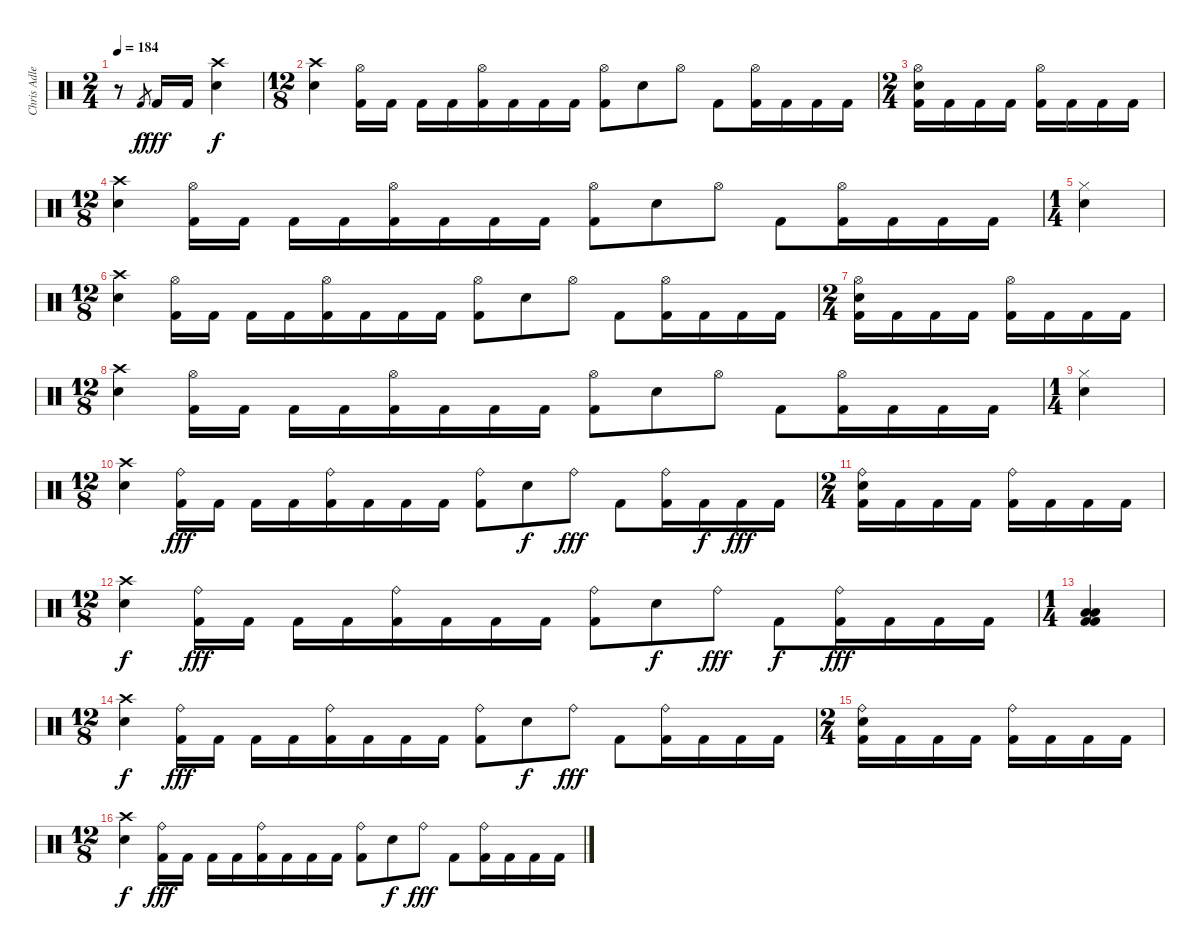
\track ("Chris Adler" "Chris Adle") {instrument percussion}
\staff {score}
\articulation defaults
\ts (2 4)
\tempo 184
\clef neutral
\ks c
r.8{dy f} "Kick (hit) 2".8{gr} "Kick (hit) 2".16{dy fff} "Kick (hit) 2".16 ("Crash high (hit)" "Electric Snare (hit)").4{dy f} |
\ts (12 8)
("Crash high (hit)" "Electric Snare (hit)").4 ("Hi-Hat (open)" "Kick (hit) 2").16 "Kick (hit) 2".16 "Kick (hit) 2".16 "Kick (hit) 2".16 ("Hi-Hat (open)" "Kick (hit) 2").16 "Kick (hit) 2".16 "Kick (hit) 2".16 "Kick (hit) 2".16 ("Hi-Hat (open)" "Kick (hit) 2").8 "Electric Snare (hit)".8 "Hi-Hat (open)".8 "Kick (hit) 2".8 ("Hi-Hat (open)" "Kick (hit) 2").16 "Kick (hit) 2".16 "Kick (hit) 2".16 "Kick (hit) 2".16 |
\ts (2 4)
("Hi-Hat (open)" "Electric Snare (hit)" "Kick (hit) 2").16 "Kick (hit) 2".16 "Kick (hit) 2".16 "Kick (hit) 2".16 ("Hi-Hat (open)" "Kick (hit) 2").16 "Kick (hit) 2".16 "Kick (hit) 2".16 "Kick (hit) 2".16 |
\ts (12 8)
("Crash high (hit)" "Electric Snare (hit)").4 ("Hi-Hat (open)" "Kick (hit) 2").16 "Kick (hit) 2".16 "Kick (hit) 2".16 "Kick (hit) 2".16 ("Hi-Hat (open)" "Kick (hit) 2").16 "Kick (hit) 2".16 "Kick (hit) 2".16 "Kick (hit) 2".16 ("Hi-Hat (open)" "Kick (hit) 2").8 "Electric Snare (hit)".8 "Hi-Hat (open)".8 "Kick (hit) 2".8 ("Hi-Hat (open)" "Kick (hit) 2").16 "Kick (hit) 2".16 "Kick (hit) 2".16 "Kick (hit) 2".16 |
\ts (1 4)
("Hi-Hat (closed)" "Electric Snare (hit)").4 |
\ts (12 8)
("Crash high (hit)" "Electric Snare (hit)").4 ("Hi-Hat (open)" "Kick (hit) 2").16 "Kick (hit) 2".16 "Kick (hit) 2".16 "Kick (hit) 2".16 ("Hi-Hat (open)" "Kick (hit) 2").16 "Kick (hit) 2".16 "Kick (hit) 2".16 "Kick (hit) 2".16 ("Hi-Hat (open)" "Kick (hit) 2").8 "Electric Snare (hit)".8 "Hi-Hat (open)".8 "Kick (hit) 2".8 ("Hi-Hat (open)" "Kick (hit) 2").16 "Kick (hit) 2".16 "Kick (hit) 2".16 "Kick (hit) 2".16 |
\ts (2 4)
("Hi-Hat (open)" "Electric Snare (hit)" "Kick (hit) 2").16 "Kick (hit) 2".16 "Kick (hit) 2".16 "Kick (hit) 2".16 ("Hi-Hat (open)" "Kick (hit) 2").16 "Kick (hit) 2".16 "Kick (hit) 2".16 "Kick (hit) 2".16 |
\ts (12 8)
("Crash high (hit)" "Electric Snare (hit)").4 ("Hi-Hat (open)" "Kick (hit) 2").16 "Kick (hit) 2".16 "Kick (hit) 2".16 "Kick (hit) 2".16 ("Hi-Hat (open)" "Kick (hit) 2").16 "Kick (hit) 2".16 "Kick (hit) 2".16 "Kick (hit) 2".16 ("Hi-Hat (open)" "Kick (hit) 2").8 "Electric Snare (hit)".8 "Hi-Hat (open)".8 "Kick (hit) 2".8 ("Hi-Hat (open)" "Kick (hit) 2").16 "Kick (hit) 2".16 "Kick (hit) 2".16 "Kick (hit) 2".16 |
\ts (1 4)
("Hi-Hat (closed)" "Electric Snare (hit)").4 |
\ts (12 8)
("Crash high (hit)" "Electric Snare (hit)").4 ("Ride (bell)" "Kick (hit) 2").16{dy fff} "Kick (hit) 2".16 "Kick (hit) 2".16 "Kick (hit) 2".16 ("Ride (bell)" "Kick (hit) 2").16 "Kick (hit) 2".16 "Kick (hit) 2".16 "Kick (hit) 2".16 ("Ride (bell)" "Kick (hit) 2").8 "Electric Snare (hit)".8{dy f} "Ride (bell)".8{dy fff} "Kick (hit) 2".8 ("Ride (bell)" "Kick (hit) 2").16 "Kick (hit) 2".16{dy f} "Kick (hit) 2".16{dy fff} "Kick (hit) 2".16 |
\ts (2 4)
("Ride (bell)" "Electric Snare (hit)" "Kick (hit) 2").16 "Kick (hit) 2".16 "Kick (hit) 2".16 "Kick (hit) 2".16 ("Ride (bell)" "Kick (hit) 2").16 "Kick (hit) 2".16 "Kick (hit) 2".16 "Kick (hit) 2".16 |
\ts (12 8)
("Crash high (hit)" "Electric Snare (hit)").4{dy f} ("Ride (bell)" "Kick (hit) 2").16{dy fff} "Kick (hit) 2".16 "Kick (hit) 2".16 "Kick (hit) 2".16 ("Ride (bell)" "Kick (hit) 2").16 "Kick (hit) 2".16 "Kick (hit) 2".16 "Kick (hit) 2".16 ("Ride (bell)" "Kick (hit) 2").8 "Electric Snare (hit)".8{dy f} "Ride (bell)".8{dy fff} "Kick (hit) 2".8{dy f} ("Ride (bell)" "Kick (hit) 2").16{dy fff} "Kick (hit) 2".16 "Kick (hit) 2".16 "Kick (hit) 2".16 |
\ts (1 4)
("Low Floor Tom (hit)" "Low Floor Tom (hit)" "Kick (hit) 2" "Kick (hit) 2").4 |
\ts (12 8)
("Crash high (hit)" "Electric Snare (hit)").4{dy f} ("Ride (bell)" "Kick (hit) 2").16{dy fff} "Kick (hit) 2".16 "Kick (hit) 2".16 "Kick (hit) 2".16 ("Ride (bell)" "Kick (hit) 2").16 "Kick (hit) 2".16 "Kick (hit) 2".16 "Kick (hit) 2".16 ("Ride (bell)" "Kick (hit) 2").8 "Electric Snare (hit)".8{dy f} "Ride (bell)".8{dy fff} "Kick (hit) 2".8 ("Ride (bell)" "Kick (hit) 2").16 "Kick (hit) 2".16 "Kick (hit) 2".16 "Kick (hit) 2".16 |
\ts (2 4)
("Ride (bell)" "Electric Snare (hit)" "Kick (hit) 2").16 "Kick (hit) 2".16 "Kick (hit) 2".16 "Kick (hit) 2".16 ("Ride (bell)" "Kick (hit) 2").16 "Kick (hit) 2".16 "Kick (hit) 2".16 "Kick (hit) 2".16 |
\ts (12 8)
("Crash high (hit)" "Electric Snare (hit)").4{dy f} ("Ride (bell)" "Kick (hit) 2").16{dy fff} "Kick (hit) 2".16 "Kick (hit) 2".16 "Kick (hit) 2".16 ("Ride (bell)" "Kick (hit) 2").16 "Kick (hit) 2".16 "Kick (hit) 2".16 "Kick (hit) 2".16 ("Ride (bell)" "Kick (hit) 2").8 "Electric Snare (hit)".8{dy f} "Ride (bell)".8{dy fff} "Kick (hit) 2".8 ("Ride (bell)" "Kick (hit) 2").16 "Kick (hit) 2".16 "Kick (hit) 2".16 "Kick (hit) 2".16
